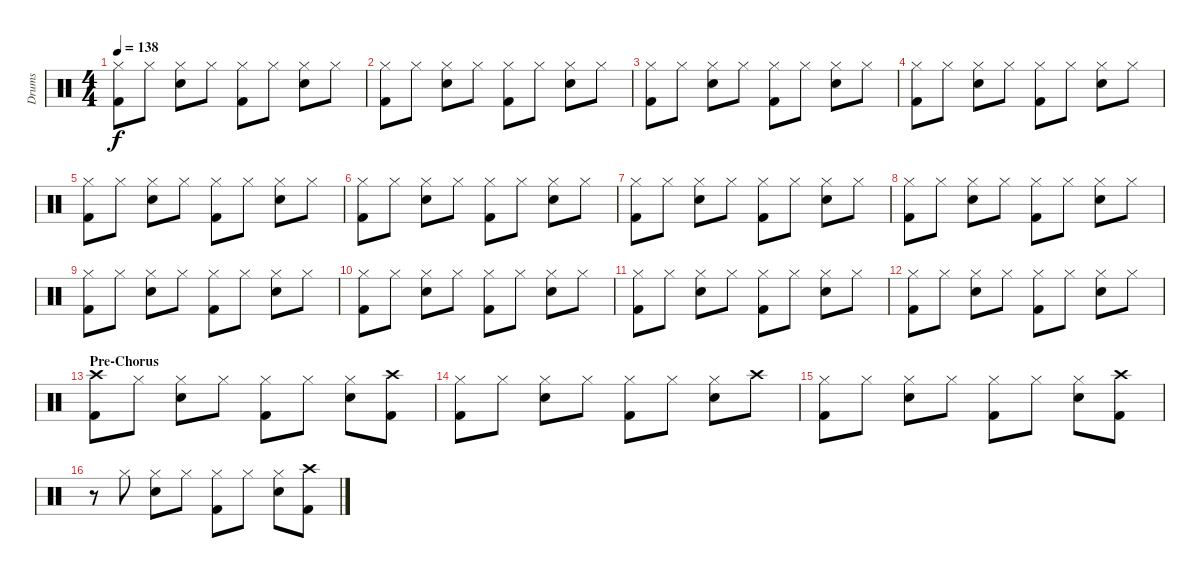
\track ("Drums" "Drums") {instrument percussion}
\staff {score}
\articulation defaults
\ts (4 4)
\tempo 138
\clef neutral
\ks c
("Hi-Hat (closed)" "Kick (hit) 2").8{dy f} "Hi-Hat (closed)".8 ("Hi-Hat (closed)" "Snare (hit) 2").8 "Hi-Hat (closed)".8 ("Hi-Hat (closed)" "Kick (hit) 2").8 "Hi-Hat (closed)".8 ("Hi-Hat (closed)" "Snare (hit) 2").8 "Hi-Hat (closed)".8 |
("Hi-Hat (closed)" "Kick (hit) 2").8 "Hi-Hat (closed)".8 ("Hi-Hat (closed)" "Snare (hit) 2").8 "Hi-Hat (closed)".8 ("Hi-Hat (closed)" "Kick (hit) 2").8 "Hi-Hat (closed)".8 ("Hi-Hat (closed)" "Snare (hit) 2").8 "Hi-Hat (closed)".8 |
("Hi-Hat (closed)" "Kick (hit) 2").8 "Hi-Hat (closed)".8 ("Hi-Hat (closed)" "Snare (hit) 2").8 "Hi-Hat (closed)".8 ("Hi-Hat (closed)" "Kick (hit) 2").8 "Hi-Hat (closed)".8 ("Hi-Hat (closed)" "Snare (hit) 2").8 "Hi-Hat (closed)".8 |
("Hi-Hat (closed)" "Kick (hit) 2").8 "Hi-Hat (closed)".8 ("Hi-Hat (closed)" "Snare (hit) 2").8 "Hi-Hat (closed)".8 ("Hi-Hat (closed)" "Kick (hit) 2").8 "Hi-Hat (closed)".8 ("Hi-Hat (closed)" "Snare (hit) 2").8 "Hi-Hat (closed)".8 |
("Hi-Hat (closed)" "Kick (hit) 2").8 "Hi-Hat (closed)".8 ("Hi-Hat (closed)" "Snare (hit) 2").8 "Hi-Hat (closed)".8 ("Hi-Hat (closed)" "Kick (hit) 2").8 "Hi-Hat (closed)".8 ("Hi-Hat (closed)" "Snare (hit) 2").8 "Hi-Hat (closed)".8 |
("Hi-Hat (closed)" "Kick (hit) 2").8 "Hi-Hat (closed)".8 ("Hi-Hat (closed)" "Snare (hit) 2").8 "Hi-Hat (closed)".8 ("Hi-Hat (closed)" "Kick (hit) 2").8 "Hi-Hat (closed)".8 ("Hi-Hat (closed)" "Snare (hit) 2").8 "Hi-Hat (closed)".8 |
("Hi-Hat (closed)" "Kick (hit) 2").8 "Hi-Hat (closed)".8 ("Hi-Hat (closed)" "Snare (hit) 2").8 "Hi-Hat (closed)".8 ("Hi-Hat (closed)" "Kick (hit) 2").8 "Hi-Hat (closed)".8 ("Hi-Hat (closed)" "Snare (hit) 2").8 "Hi-Hat (closed)".8 |
("Hi-Hat (closed)" "Kick (hit) 2").8 "Hi-Hat (closed)".8 ("Hi-Hat (closed)" "Snare (hit) 2").8 "Hi-Hat (closed)".8 ("Hi-Hat (closed)" "Kick (hit) 2").8 "Hi-Hat (closed)".8 ("Hi-Hat (closed)" "Snare (hit) 2").8 "Hi-Hat (closed)".8 |
("Hi-Hat (closed)" "Kick (hit) 2").8 "Hi-Hat (closed)".8 ("Hi-Hat (closed)" "Snare (hit) 2").8 "Hi-Hat (closed)".8 ("Hi-Hat (closed)" "Kick (hit) 2").8 "Hi-Hat (closed)".8 ("Hi-Hat (closed)" "Snare (hit) 2").8 "Hi-Hat (closed)".8 |
("Hi-Hat (closed)" "Kick (hit) 2").8 "Hi-Hat (closed)".8 ("Hi-Hat (closed)" "Snare (hit) 2").8 "Hi-Hat (closed)".8 ("Hi-Hat (closed)" "Kick (hit) 2").8 "Hi-Hat (closed)".8 ("Hi-Hat (closed)" "Snare (hit) 2").8 "Hi-Hat (closed)".8 |
("Hi-Hat (closed)" "Kick (hit) 2").8 "Hi-Hat (closed)".8 ("Hi-Hat (closed)" "Snare (hit) 2").8 "Hi-Hat (closed)".8 ("Hi-Hat (closed)" "Kick (hit) 2").8 "Hi-Hat (closed)".8 ("Hi-Hat (closed)" "Snare (hit) 2").8 "Hi-Hat (closed)".8 |
("Hi-Hat (closed)" "Kick (hit) 2").8 "Hi-Hat (closed)".8 ("Hi-Hat (closed)" "Snare (hit) 2").8 "Hi-Hat (closed)".8 ("Hi-Hat (closed)" "Kick (hit) 2").8 "Hi-Hat (closed)".8 ("Hi-Hat (closed)" "Snare (hit) 2").8 "Hi-Hat (closed)".8 |
\section ("" "Pre-Chorus")
("Crash high (hit)" "Kick (hit) 2").8 "Hi-Hat (closed)".8 ("Hi-Hat (closed)" "Snare (hit) 2").8 "Hi-Hat (closed)".8 ("Hi-Hat (closed)" "Kick (hit) 2").8 "Hi-Hat (closed)".8 ("Hi-Hat (closed)" "Snare (hit) 2").8 ("Crash high (hit)" "Kick (hit) 2").8 |
("Hi-Hat (closed)" "Kick (hit) 2").8 "Hi-Hat (closed)".8 ("Hi-Hat (closed)" "Snare (hit) 2").8 "Hi-Hat (closed)".8 ("Hi-Hat (closed)" "Kick (hit) 2").8 "Hi-Hat (closed)".8 ("Hi-Hat (closed)" "Snare (hit) 2").8 "Crash high (hit)".8 |
("Hi-Hat (closed)" "Kick (hit) 2").8 "Hi-Hat (closed)".8 ("Hi-Hat (closed)" "Snare (hit) 2").8 "Hi-Hat (closed)".8 ("Hi-Hat (closed)" "Kick (hit) 2").8 "Hi-Hat (closed)".8 ("Hi-Hat (closed)" "Snare (hit) 2").8 ("Crash high (hit)" "Kick (hit) 2").8 |
r.8 "Hi-Hat (closed)".8 ("Hi-Hat (closed)" "Snare (hit) 2").8 "Hi-Hat (closed)".8 ("Hi-Hat (closed)" "Kick (hit) 2").8 "Hi-Hat (closed)".8 ("Hi-Hat (closed)" "Snare (hit) 2").8 ("Crash high (hit)" "Kick (hit) 2").8
